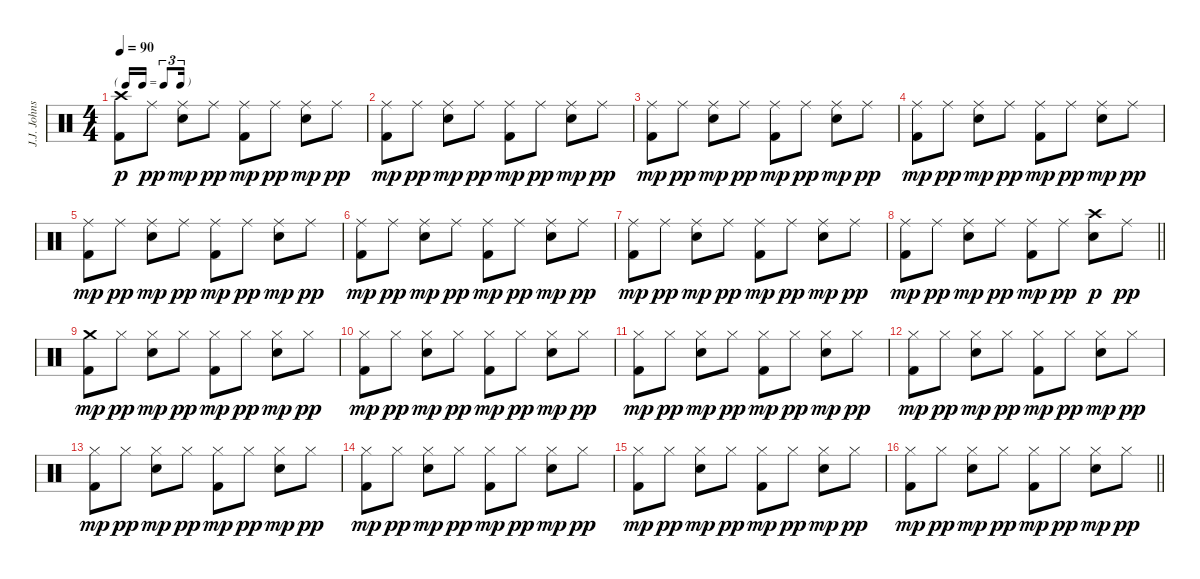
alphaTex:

\track ("J.J. Johnson" "J.J. Johns") {instrument percussion}
\staff {score}
\articulation defaults
\ts (4 4)
\tf triplet16th
\tempo 90
\clef neutral
\ks c
("Crash high (hit)" "Kick (hit) 2").8{dy p} "Ride (middle)".8{dy pp} ("Ride (middle)" "Electric Snare (hit)").8{dy mp} "Ride (middle)".8{dy pp} ("Ride (middle)" "Kick (hit) 2").8{dy mp} "Ride (middle)".8{dy pp} ("Ride (middle)" "Electric Snare (hit)").8{dy mp} "Ride (middle)".8{dy pp} |
("Ride (middle)" "Kick (hit) 2").8{dy mp} "Ride (middle)".8{dy pp} ("Ride (middle)" "Electric Snare (hit)").8{dy mp} "Ride (middle)".8{dy pp} ("Ride (middle)" "Kick (hit) 2").8{dy mp} "Ride (middle)".8{dy pp} ("Ride (middle)" "Electric Snare (hit)").8{dy mp} "Ride (middle)".8{dy pp} |
("Ride (middle)" "Kick (hit) 2").8{dy mp} "Ride (middle)".8{dy pp} ("Ride (middle)" "Electric Snare (hit)").8{dy mp} "Ride (middle)".8{dy pp} ("Ride (middle)" "Kick (hit) 2").8{dy mp} "Ride (middle)".8{dy pp} ("Ride (middle)" "Electric Snare (hit)").8{dy mp} "Ride (middle)".8{dy pp} |
("Ride (middle)" "Kick (hit) 2").8{dy mp} "Ride (middle)".8{dy pp} ("Ride (middle)" "Electric Snare (hit)").8{dy mp} "Ride (middle)".8{dy pp} ("Ride (middle)" "Kick (hit) 2").8{dy mp} "Ride (middle)".8{dy pp} ("Ride (middle)" "Electric Snare (hit)").8{dy mp} "Ride (middle)".8{dy pp} |
("Ride (middle)" "Kick (hit) 2").8{dy mp} "Ride (middle)".8{dy pp} ("Ride (middle)" "Electric Snare (hit)").8{dy mp} "Ride (middle)".8{dy pp} ("Ride (middle)" "Kick (hit) 2").8{dy mp} "Ride (middle)".8{dy pp} ("Ride (middle)" "Electric Snare (hit)").8{dy mp} "Ride (middle)".8{dy pp} |
("Ride (middle)" "Kick (hit) 2").8{dy mp} "Ride (middle)".8{dy pp} ("Ride (middle)" "Electric Snare (hit)").8{dy mp} "Ride (middle)".8{dy pp} ("Ride (middle)" "Kick (hit) 2").8{dy mp} "Ride (middle)".8{dy pp} ("Ride (middle)" "Electric Snare (hit)").8{dy mp} "Ride (middle)".8{dy pp} |
("Ride (middle)" "Kick (hit) 2").8{dy mp} "Ride (middle)".8{dy pp} ("Ride (middle)" "Electric Snare (hit)").8{dy mp} "Ride (middle)".8{dy pp} ("Ride (middle)" "Kick (hit) 2").8{dy mp} "Ride (middle)".8{dy pp} ("Ride (middle)" "Electric Snare (hit)").8{dy mp} "Ride (middle)".8{dy pp} |
\barLineRight lightlight
("Ride (middle)" "Kick (hit) 2").8{dy mp} "Ride (middle)".8{dy pp} ("Ride (middle)" "Electric Snare (hit)").8{dy mp} "Ride (middle)".8{dy pp} ("Ride (middle)" "Kick (hit) 2").8{dy mp} "Ride (middle)".8{dy pp} ("Crash high (hit)" "Electric Snare (hit)").8{dy p} "Ride (middle)".8{dy pp} |
("Crash medium (hit)" "Kick (hit) 2").8{dy mp} "Hi-Hat (closed)".8{dy pp} ("Hi-Hat (closed)" "Electric Snare (hit)").8{dy mp} "Hi-Hat (closed)".8{dy pp} ("Hi-Hat (closed)" "Kick (hit) 2").8{dy mp} "Hi-Hat (closed)".8{dy pp} ("Hi-Hat (closed)" "Electric Snare (hit)").8{dy mp} "Hi-Hat (closed)".8{dy pp} |
("Hi-Hat (closed)" "Kick (hit) 2").8{dy mp} "Hi-Hat (closed)".8{dy pp} ("Hi-Hat (closed)" "Electric Snare (hit)").8{dy mp} "Hi-Hat (closed)".8{dy pp} ("Hi-Hat (closed)" "Kick (hit) 2").8{dy mp} "Hi-Hat (closed)".8{dy pp} ("Hi-Hat (closed)" "Electric Snare (hit)").8{dy mp} "Hi-Hat (closed)".8{dy pp} |
("Hi-Hat (closed)" "Kick (hit) 2").8{dy mp} "Hi-Hat (closed)".8{dy pp} ("Hi-Hat (closed)" "Electric Snare (hit)").8{dy mp} "Hi-Hat (closed)".8{dy pp} ("Hi-Hat (closed)" "Kick (hit) 2").8{dy mp} "Hi-Hat (closed)".8{dy pp} ("Hi-Hat (closed)" "Electric Snare (hit)").8{dy mp} "Hi-Hat (closed)".8{dy pp} |
("Hi-Hat (closed)" "Kick (hit) 2").8{dy mp} "Hi-Hat (closed)".8{dy pp} ("Hi-Hat (closed)" "Electric Snare (hit)").8{dy mp} "Hi-Hat (closed)".8{dy pp} ("Hi-Hat (closed)" "Kick (hit) 2").8{dy mp} "Hi-Hat (closed)".8{dy pp} ("Hi-Hat (closed)" "Electric Snare (hit)").8{dy mp} "Hi-Hat (closed)".8{dy pp} |
("Hi-Hat (closed)" "Kick (hit) 2").8{dy mp} "Hi-Hat (closed)".8{dy pp} ("Hi-Hat (closed)" "Electric Snare (hit)").8{dy mp} "Hi-Hat (closed)".8{dy pp} ("Hi-Hat (closed)" "Kick (hit) 2").8{dy mp} "Hi-Hat (closed)".8{dy pp} ("Hi-Hat (closed)" "Electric Snare (hit)").8{dy mp} "Hi-Hat (closed)".8{dy pp} |
("Hi-Hat (closed)" "Kick (hit) 2").8{dy mp} "Hi-Hat (closed)".8{dy pp} ("Hi-Hat (closed)" "Electric Snare (hit)").8{dy mp} "Hi-Hat (closed)".8{dy pp} ("Hi-Hat (closed)" "Kick (hit) 2").8{dy mp} "Hi-Hat (closed)".8{dy pp} ("Hi-Hat (closed)" "Electric Snare (hit)").8{dy mp} "Hi-Hat (closed)".8{dy pp} |
("Hi-Hat (closed)" "Kick (hit) 2").8{dy mp} "Hi-Hat (closed)".8{dy pp} ("Hi-Hat (closed)" "Electric Snare (hit)").8{dy mp} "Hi-Hat (closed)".8{dy pp} ("Hi-Hat (closed)" "Kick (hit) 2").8{dy mp} "Hi-Hat (closed)".8{dy pp} ("Hi-Hat (closed)" "Electric Snare (hit)").8{dy mp} "Hi-Hat (closed)".8{dy pp} |
\barLineRight lightlight
("Hi-Hat (closed)" "Kick (hit) 2").8{dy mp} "Hi-Hat (closed)".8{dy pp} ("Hi-Hat (closed)" "Electric Snare (hit)").8{dy mp} "Hi-Hat (closed)".8{dy pp} ("Hi-Hat (closed)" "Kick (hit) 2").8{dy mp} "Hi-Hat (closed)".8{dy pp} ("Hi-Hat (closed)" "Electric Snare (hit)").8{dy mp} "Hi-Hat (closed)".8{dy pp}
